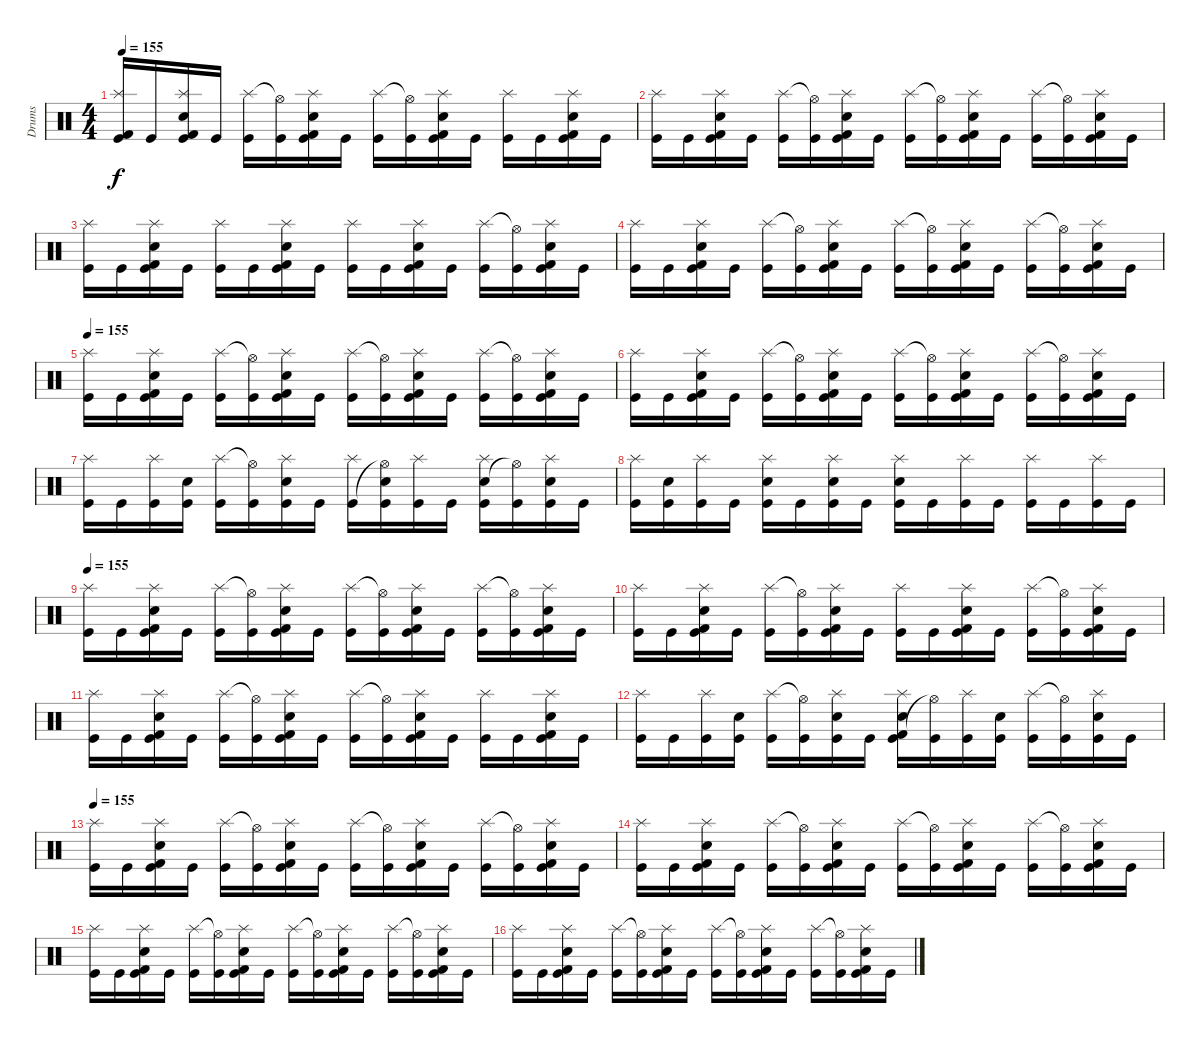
\track ("Drums" "Drums") {instrument percussion}
\staff {score}
\articulation defaults
\ts (4 4)
\tempo 155
\clef neutral
\ks c
("Kick (hit) 2" "Splash (hit)" "Kick (hit)").16{dy f} "Kick (hit)".16 ("Kick (hit) 2" "Electric Snare (hit)" "Splash (hit)" "Kick (hit)").16 "Kick (hit)".16 ("Splash (hit)" "Kick (hit)").16 ("Hi-Hat (open)"{t} "Kick (hit)").16 ("Kick (hit) 2" "Electric Snare (hit)" "Splash (hit)" "Kick (hit)").16 "Kick (hit)".16 ("Splash (hit)" "Kick (hit)").16 ("Hi-Hat (open)"{t} "Kick (hit)").16 ("Kick (hit) 2" "Electric Snare (hit)" "Splash (hit)" "Kick (hit)").16 "Kick (hit)".16 ("Splash (hit)" "Kick (hit)").16 "Kick (hit)".16 ("Kick (hit) 2" "Electric Snare (hit)" "Splash (hit)" "Kick (hit)").16 "Kick (hit)".16 |
("Splash (hit)" "Kick (hit)").16 "Kick (hit)".16 ("Kick (hit) 2" "Electric Snare (hit)" "Splash (hit)" "Kick (hit)").16 "Kick (hit)".16 ("Splash (hit)" "Kick (hit)").16 ("Hi-Hat (open)"{t} "Kick (hit)").16 ("Kick (hit) 2" "Electric Snare (hit)" "Splash (hit)" "Kick (hit)").16 "Kick (hit)".16 ("Splash (hit)" "Kick (hit)").16 ("Hi-Hat (open)"{t} "Kick (hit)").16 ("Kick (hit) 2" "Electric Snare (hit)" "Splash (hit)" "Kick (hit)").16 "Kick (hit)".16 ("Splash (hit)" "Kick (hit)").16 ("Hi-Hat (open)"{t} "Kick (hit)").16 ("Kick (hit) 2" "Electric Snare (hit)" "Splash (hit)" "Kick (hit)").16 "Kick (hit)".16 |
("Splash (hit)" "Kick (hit)").16 "Kick (hit)".16 ("Kick (hit) 2" "Electric Snare (hit)" "Splash (hit)" "Kick (hit)").16 "Kick (hit)".16 ("Splash (hit)" "Kick (hit)").16 "Kick (hit)".16 ("Kick (hit) 2" "Electric Snare (hit)" "Splash (hit)" "Kick (hit)").16 "Kick (hit)".16 ("Splash (hit)" "Kick (hit)").16 "Kick (hit)".16 ("Kick (hit) 2" "Electric Snare (hit)" "Splash (hit)" "Kick (hit)").16 "Kick (hit)".16 ("Splash (hit)" "Kick (hit)").16 ("Hi-Hat (open)"{t} "Kick (hit)").16 ("Kick (hit) 2" "Electric Snare (hit)" "Splash (hit)" "Kick (hit)").16 "Kick (hit)".16 |
("Splash (hit)" "Kick (hit)").16 "Kick (hit)".16 ("Kick (hit) 2" "Electric Snare (hit)" "Splash (hit)" "Kick (hit)").16 "Kick (hit)".16 ("Splash (hit)" "Kick (hit)").16 ("Hi-Hat (open)"{t} "Kick (hit)").16 ("Kick (hit) 2" "Electric Snare (hit)" "Splash (hit)" "Kick (hit)").16 "Kick (hit)".16 ("Splash (hit)" "Kick (hit)").16 ("Hi-Hat (open)"{t} "Kick (hit)").16 ("Kick (hit) 2" "Electric Snare (hit)" "Splash (hit)" "Kick (hit)").16 "Kick (hit)".16 ("Splash (hit)" "Kick (hit)").16 ("Hi-Hat (open)"{t} "Kick (hit)").16 ("Kick (hit) 2" "Electric Snare (hit)" "Splash (hit)" "Kick (hit)").16 "Kick (hit)".16 |
\tempo 155
("Splash (hit)" "Kick (hit)").16 "Kick (hit)".16 ("Kick (hit) 2" "Electric Snare (hit)" "Splash (hit)" "Kick (hit)").16 "Kick (hit)".16 ("Splash (hit)" "Kick (hit)").16 ("Hi-Hat (open)"{t} "Kick (hit)").16 ("Kick (hit) 2" "Electric Snare (hit)" "Splash (hit)" "Kick (hit)").16 "Kick (hit)".16 ("Splash (hit)" "Kick (hit)").16 ("Hi-Hat (open)"{t} "Kick (hit)").16 ("Kick (hit) 2" "Electric Snare (hit)" "Splash (hit)" "Kick (hit)").16 "Kick (hit)".16 ("Splash (hit)" "Kick (hit)").16 ("Hi-Hat (open)"{t} "Kick (hit)").16 ("Kick (hit) 2" "Electric Snare (hit)" "Splash (hit)" "Kick (hit)").16 "Kick (hit)".16 |
("Splash (hit)" "Kick (hit)").16 "Kick (hit)".16 ("Kick (hit) 2" "Electric Snare (hit)" "Splash (hit)" "Kick (hit)").16 "Kick (hit)".16 ("Splash (hit)" "Kick (hit)").16 ("Hi-Hat (open)"{t} "Kick (hit)").16 ("Kick (hit) 2" "Electric Snare (hit)" "Splash (hit)" "Kick (hit)").16 "Kick (hit)".16 ("Splash (hit)" "Kick (hit)").16 ("Hi-Hat (open)"{t} "Kick (hit)").16 ("Kick (hit) 2" "Electric Snare (hit)" "Splash (hit)" "Kick (hit)").16 "Kick (hit)".16 ("Splash (hit)" "Kick (hit)").16 ("Hi-Hat (open)"{t} "Kick (hit)").16 ("Kick (hit) 2" "Electric Snare (hit)" "Splash (hit)" "Kick (hit)").16 "Kick (hit)".16 |
("Splash (hit)" "Kick (hit)").16 "Kick (hit)".16 ("Splash (hit)" "Kick (hit)").16 ("Electric Snare (hit)" "Kick (hit)").16 ("Splash (hit)" "Kick (hit)").16 ("Hi-Hat (open)"{t} "Kick (hit)").16 ("Electric Snare (hit)" "Splash (hit)" "Kick (hit)").16 "Kick (hit)".16 ("Splash (hit)" "Kick (hit)").16 ("Electric Snare (hit)" "Hi-Hat (open)"{t} "Kick (hit)").16 ("Splash (hit)" "Kick (hit)").16 "Kick (hit)".16 ("Electric Snare (hit)" "Splash (hit)" "Kick (hit)").16 ("Hi-Hat (open)"{t} "Kick (hit)").16 ("Electric Snare (hit)" "Splash (hit)" "Kick (hit)").16 "Kick (hit)".16 |
("Splash (hit)" "Kick (hit)").16 ("Electric Snare (hit)" "Kick (hit)").16 ("Splash (hit)" "Kick (hit)").16 "Kick (hit)".16 ("Electric Snare (hit)" "Splash (hit)" "Kick (hit)").16 "Kick (hit)".16 ("Electric Snare (hit)" "Splash (hit)" "Kick (hit)").16 "Kick (hit)".16 ("Electric Snare (hit)" "Splash (hit)" "Kick (hit)").16 "Kick (hit)".16 ("Splash (hit)" "Kick (hit)").16 "Kick (hit)".16 ("Splash (hit)" "Kick (hit)").16 "Kick (hit)".16 ("Splash (hit)" "Kick (hit)").16 "Kick (hit)".16 |
\tempo 155
("Splash (hit)" "Kick (hit)").16 "Kick (hit)".16 ("Kick (hit) 2" "Electric Snare (hit)" "Splash (hit)" "Kick (hit)").16 "Kick (hit)".16 ("Splash (hit)" "Kick (hit)").16 ("Hi-Hat (open)"{t} "Kick (hit)").16 ("Kick (hit) 2" "Electric Snare (hit)" "Splash (hit)" "Kick (hit)").16 "Kick (hit)".16 ("Splash (hit)" "Kick (hit)").16 ("Hi-Hat (open)"{t} "Kick (hit)").16 ("Kick (hit) 2" "Electric Snare (hit)" "Splash (hit)" "Kick (hit)").16 "Kick (hit)".16 ("Splash (hit)" "Kick (hit)").16 ("Hi-Hat (open)"{t} "Kick (hit)").16 ("Kick (hit) 2" "Electric Snare (hit)" "Splash (hit)" "Kick (hit)").16 "Kick (hit)".16 |
("Splash (hit)" "Kick (hit)").16 "Kick (hit)".16 ("Kick (hit) 2" "Electric Snare (hit)" "Splash (hit)" "Kick (hit)").16 "Kick (hit)".16 ("Splash (hit)" "Kick (hit)").16 ("Hi-Hat (open)"{t} "Kick (hit)").16 ("Kick (hit) 2" "Electric Snare (hit)" "Splash (hit)" "Kick (hit)").16 "Kick (hit)".16 ("Splash (hit)" "Kick (hit)").16 "Kick (hit)".16 ("Kick (hit) 2" "Electric Snare (hit)" "Splash (hit)" "Kick (hit)").16 "Kick (hit)".16 ("Splash (hit)" "Kick (hit)").16 ("Hi-Hat (open)"{t} "Kick (hit)").16 ("Kick (hit) 2" "Electric Snare (hit)" "Splash (hit)" "Kick (hit)").16 "Kick (hit)".16 |
("Splash (hit)" "Kick (hit)").16 "Kick (hit)".16 ("Kick (hit) 2" "Electric Snare (hit)" "Splash (hit)" "Kick (hit)").16 "Kick (hit)".16 ("Splash (hit)" "Kick (hit)").16 ("Hi-Hat (open)"{t} "Kick (hit)").16 ("Kick (hit) 2" "Electric Snare (hit)" "Splash (hit)" "Kick (hit)").16 "Kick (hit)".16 ("Splash (hit)" "Kick (hit)").16 ("Hi-Hat (open)"{t} "Kick (hit)").16 ("Kick (hit) 2" "Electric Snare (hit)" "Splash (hit)" "Kick (hit)").16 "Kick (hit)".16 ("Splash (hit)" "Kick (hit)").16 "Kick (hit)".16 ("Kick (hit) 2" "Electric Snare (hit)" "Splash (hit)" "Kick (hit)").16 "Kick (hit)".16 |
("Splash (hit)" "Kick (hit)").16 "Kick (hit)".16 ("Splash (hit)" "Kick (hit)").16 ("Electric Snare (hit)" "Kick (hit)").16 ("Splash (hit)" "Kick (hit)").16 ("Hi-Hat (open)"{t} "Kick (hit)").16 ("Electric Snare (hit)" "Splash (hit)" "Kick (hit)").16 "Kick (hit)".16 ("Kick (hit) 2" "Electric Snare (hit)" "Splash (hit)" "Kick (hit)").16 ("Hi-Hat (open)"{t} "Kick (hit)").16 ("Splash (hit)" "Kick (hit)").16 ("Electric Snare (hit)" "Kick (hit)").16 ("Splash (hit)" "Kick (hit)").16 ("Hi-Hat (open)"{t} "Kick (hit)").16 ("Electric Snare (hit)" "Splash (hit)" "Kick (hit)").16 "Kick (hit)".16 |
\tempo 155
("Splash (hit)" "Kick (hit)").16 "Kick (hit)".16 ("Kick (hit) 2" "Electric Snare (hit)" "Splash (hit)" "Kick (hit)").16 "Kick (hit)".16 ("Splash (hit)" "Kick (hit)").16 ("Hi-Hat (open)"{t} "Kick (hit)").16 ("Kick (hit) 2" "Electric Snare (hit)" "Splash (hit)" "Kick (hit)").16 "Kick (hit)".16 ("Splash (hit)" "Kick (hit)").16 ("Hi-Hat (open)"{t} "Kick (hit)").16 ("Kick (hit) 2" "Electric Snare (hit)" "Splash (hit)" "Kick (hit)").16 "Kick (hit)".16 ("Splash (hit)" "Kick (hit)").16 ("Hi-Hat (open)"{t} "Kick (hit)").16 ("Kick (hit) 2" "Electric Snare (hit)" "Splash (hit)" "Kick (hit)").16 "Kick (hit)".16 |
("Splash (hit)" "Kick (hit)").16 "Kick (hit)".16 ("Kick (hit) 2" "Electric Snare (hit)" "Splash (hit)" "Kick (hit)").16 "Kick (hit)".16 ("Splash (hit)" "Kick (hit)").16 ("Hi-Hat (open)"{t} "Kick (hit)").16 ("Kick (hit) 2" "Electric Snare (hit)" "Splash (hit)" "Kick (hit)").16 "Kick (hit)".16 ("Splash (hit)" "Kick (hit)").16 ("Hi-Hat (open)"{t} "Kick (hit)").16 ("Kick (hit) 2" "Electric Snare (hit)" "Splash (hit)" "Kick (hit)").16 "Kick (hit)".16 ("Splash (hit)" "Kick (hit)").16 ("Hi-Hat (open)"{t} "Kick (hit)").16 ("Kick (hit) 2" "Electric Snare (hit)" "Splash (hit)" "Kick (hit)").16 "Kick (hit)".16 |
("Splash (hit)" "Kick (hit)").16 "Kick (hit)".16 ("Kick (hit) 2" "Electric Snare (hit)" "Splash (hit)" "Kick (hit)").16 "Kick (hit)".16 ("Splash (hit)" "Kick (hit)").16 ("Hi-Hat (open)"{t} "Kick (hit)").16 ("Kick (hit) 2" "Electric Snare (hit)" "Splash (hit)" "Kick (hit)").16 "Kick (hit)".16 ("Splash (hit)" "Kick (hit)").16 ("Hi-Hat (open)"{t} "Kick (hit)").16 ("Kick (hit) 2" "Electric Snare (hit)" "Splash (hit)" "Kick (hit)").16 "Kick (hit)".16 ("Splash (hit)" "Kick (hit)").16 ("Hi-Hat (open)"{t} "Kick (hit)").16 ("Kick (hit) 2" "Electric Snare (hit)" "Splash (hit)" "Kick (hit)").16 "Kick (hit)".16 |
("Splash (hit)" "Kick (hit)").16 "Kick (hit)".16 ("Kick (hit) 2" "Electric Snare (hit)" "Splash (hit)" "Kick (hit)").16 "Kick (hit)".16 ("Splash (hit)" "Kick (hit)").16 ("Hi-Hat (open)"{t} "Kick (hit)").16 ("Kick (hit) 2" "Electric Snare (hit)" "Splash (hit)" "Kick (hit)").16 "Kick (hit)".16 ("Splash (hit)" "Kick (hit)").16 ("Hi-Hat (open)"{t} "Kick (hit)").16 ("Kick (hit) 2" "Electric Snare (hit)" "Splash (hit)" "Kick (hit)").16 "Kick (hit)".16 ("Splash (hit)" "Kick (hit)").16 ("Hi-Hat (open)"{t} "Kick (hit)").16 ("Kick (hit) 2" "Electric Snare (hit)" "Splash (hit)" "Kick (hit)").16 "Kick (hit)".16
